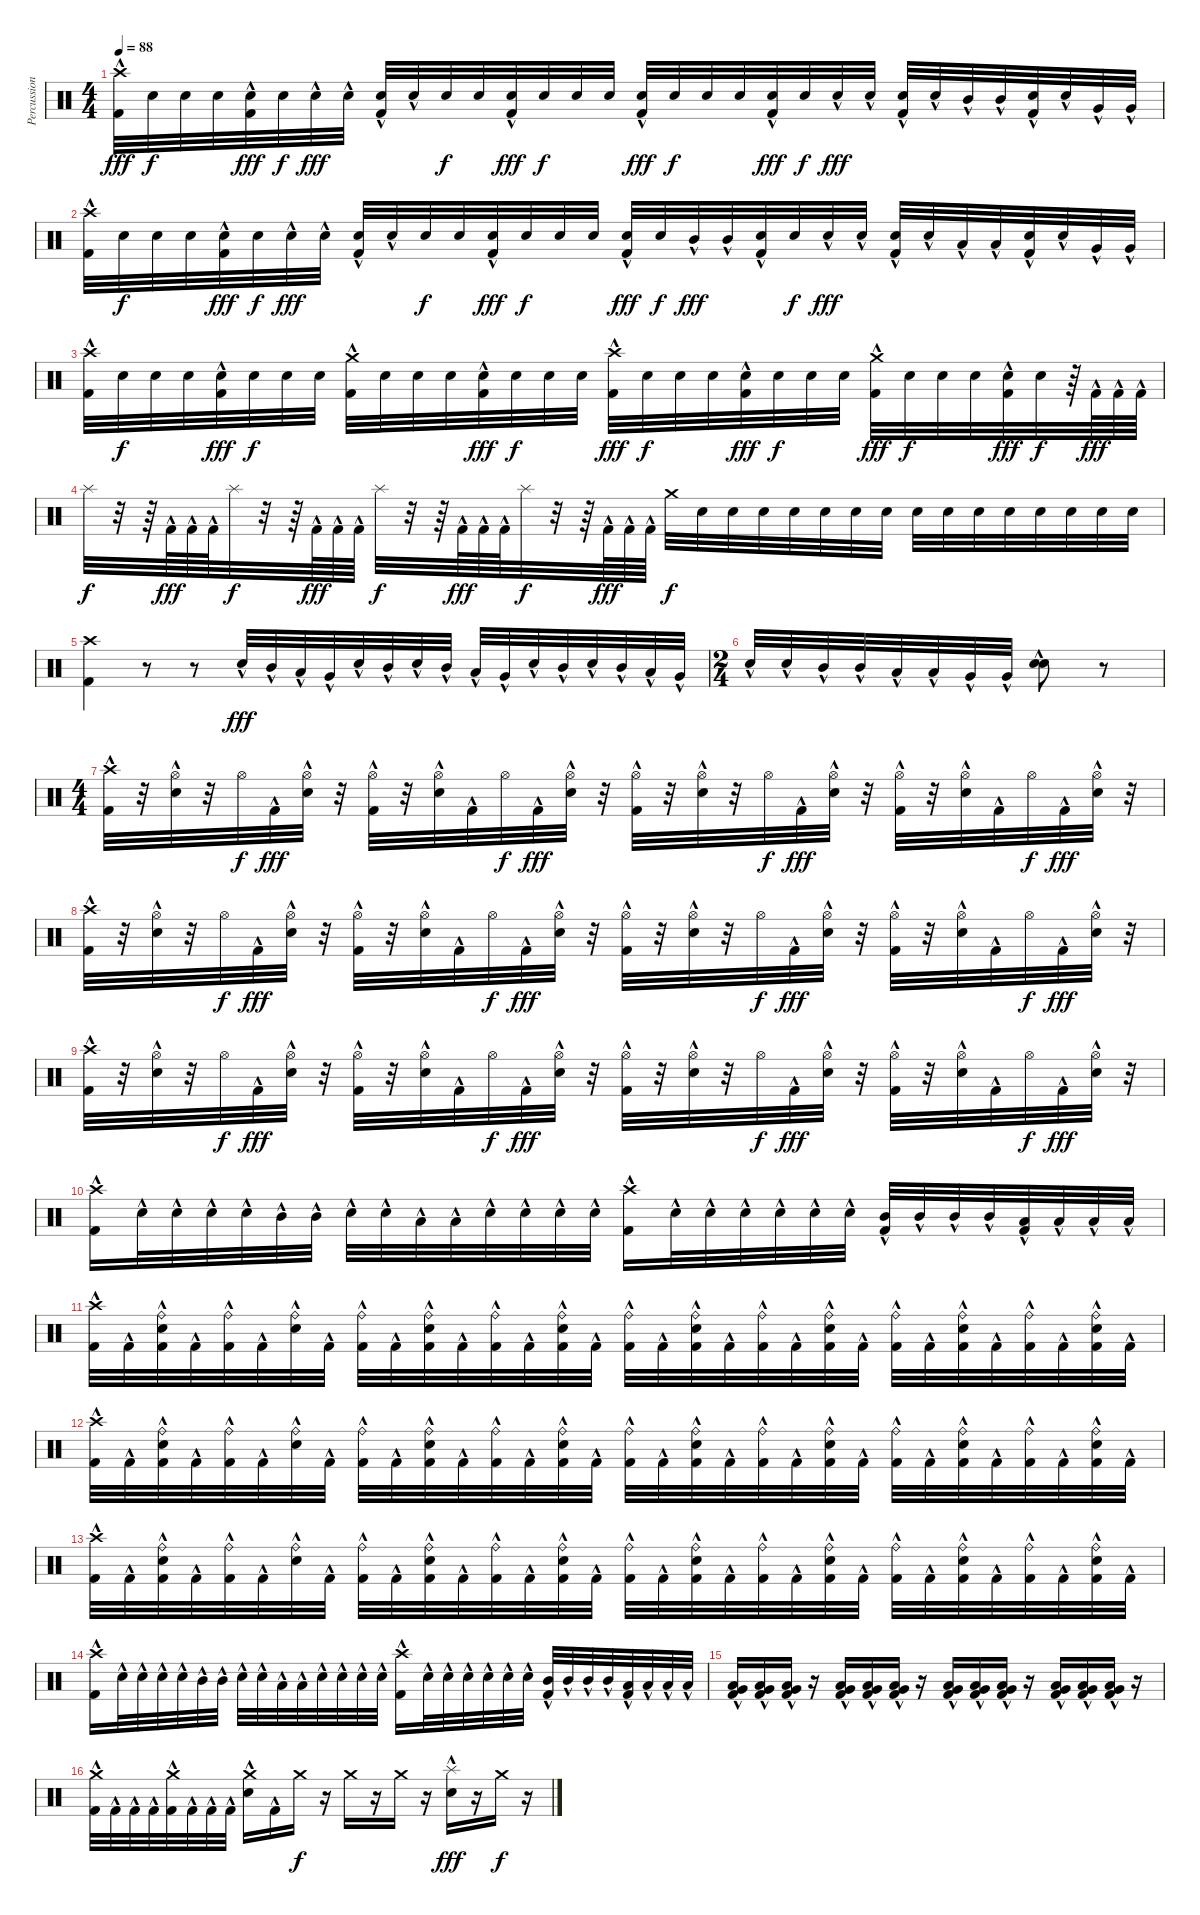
\track ("Percussion" "Percussion") {instrument percussion}
\staff {score}
\articulation defaults
\ts (4 4)
\tempo 88
\clef neutral
\ks c
("Kick (hit) 2"{hac} "Crash high (hit)").32{dy fff} "Electric Snare (hit)".32{dy f} "Electric Snare (hit)".32 "Electric Snare (hit)".32 ("Kick (hit) 2"{hac} "Electric Snare (hit)").32{dy fff} "Electric Snare (hit)".32{dy f} "Electric Snare (hit)"{hac}.32{dy fff} "Electric Snare (hit)"{hac}.32 ("Kick (hit) 2"{hac} "Electric Snare (hit)"{hac}).32 "Electric Snare (hit)"{hac}.32 "Electric Snare (hit)".32{dy f} "Electric Snare (hit)".32 ("Kick (hit) 2"{hac} "Electric Snare (hit)").32{dy fff} "Electric Snare (hit)".32{dy f} "Electric Snare (hit)".32 "Electric Snare (hit)".32 ("Kick (hit) 2"{hac} "Electric Snare (hit)").32{dy fff} "Electric Snare (hit)".32{dy f} "Electric Snare (hit)".32 "Electric Snare (hit)".32 ("Kick (hit) 2"{hac} "Electric Snare (hit)").32{dy fff} "Electric Snare (hit)".32{dy f} "Electric Snare (hit)"{hac}.32{dy fff} "Electric Snare (hit)"{hac}.32 ("Kick (hit) 2"{hac} "Electric Snare (hit)"{hac}).32 "Electric Snare (hit)"{hac}.32 "Mid Tom (hit)"{hac}.32 "Mid Tom (hit)"{hac}.32 ("Kick (hit) 2"{hac} "Electric Snare (hit)"{hac}).32 "Electric Snare (hit)"{hac}.32 "Very Low Tom (hit)"{hac}.32 "Very Low Tom (hit)"{hac}.32 |
("Kick (hit) 2"{hac} "Crash high (hit)").32 "Electric Snare (hit)".32{dy f} "Electric Snare (hit)".32 "Electric Snare (hit)".32 ("Kick (hit) 2"{hac} "Electric Snare (hit)").32{dy fff} "Electric Snare (hit)".32{dy f} "Electric Snare (hit)"{hac}.32{dy fff} "Electric Snare (hit)"{hac}.32 ("Kick (hit) 2"{hac} "Electric Snare (hit)"{hac}).32 "Electric Snare (hit)"{hac}.32 "Electric Snare (hit)".32{dy f} "Electric Snare (hit)".32 ("Kick (hit) 2"{hac} "Electric Snare (hit)").32{dy fff} "Electric Snare (hit)".32{dy f} "Electric Snare (hit)".32 "Electric Snare (hit)".32 ("Kick (hit) 2"{hac} "Electric Snare (hit)").32{dy fff} "Electric Snare (hit)".32{dy f} "Mid Tom (hit)"{hac}.32{dy fff} "Mid Tom (hit)"{hac}.32 ("Kick (hit) 2"{hac} "Electric Snare (hit)").32 "Electric Snare (hit)".32{dy f} "Electric Snare (hit)"{hac}.32{dy fff} "Electric Snare (hit)"{hac}.32 ("Kick (hit) 2"{hac} "Electric Snare (hit)"{hac}).32 "Electric Snare (hit)"{hac}.32 "Low Tom (hit)"{hac}.32 "Low Tom (hit)"{hac}.32 ("Kick (hit) 2"{hac} "Electric Snare (hit)"{hac}).32 "Electric Snare (hit)"{hac}.32 "Very Low Tom (hit)"{hac}.32 "Very Low Tom (hit)"{hac}.32 |
("Kick (hit) 2"{hac} "Crash high (hit)").32 "Electric Snare (hit)".32{dy f} "Electric Snare (hit)".32 "Electric Snare (hit)".32 ("Kick (hit) 2"{hac} "Electric Snare (hit)").32{dy fff} "Electric Snare (hit)".32{dy f} "Electric Snare (hit)".32 "Electric Snare (hit)".32 ("Kick (hit) 2"{hac} "Crash medium (hit)").32 "Electric Snare (hit)".32 "Electric Snare (hit)".32 "Electric Snare (hit)".32 ("Kick (hit) 2"{hac} "Electric Snare (hit)").32{dy fff} "Electric Snare (hit)".32{dy f} "Electric Snare (hit)".32 "Electric Snare (hit)".32 ("Kick (hit) 2"{hac} "Crash high (hit)").32{dy fff} "Electric Snare (hit)".32{dy f} "Electric Snare (hit)".32 "Electric Snare (hit)".32 ("Kick (hit) 2"{hac} "Electric Snare (hit)").32{dy fff} "Electric Snare (hit)".32{dy f} "Electric Snare (hit)".32 "Electric Snare (hit)".32 ("Kick (hit) 2"{hac} "Crash medium (hit)").32{dy fff} "Electric Snare (hit)".32{dy f} "Electric Snare (hit)".32 "Electric Snare (hit)".32 ("Kick (hit) 2"{hac} "Electric Snare (hit)").32{dy fff} "Electric Snare (hit)".32{dy f} r.64 "Kick (hit) 2"{hac}.64{dy fff} "Kick (hit) 2"{hac}.64 "Kick (hit) 2"{hac}.64 |
"Splash (hit)".32{dy f} r.32 r.64 "Kick (hit) 2"{hac}.64{dy fff} "Kick (hit) 2"{hac}.64 "Kick (hit) 2"{hac}.64 "Splash (hit)".32{dy f} r.32 r.64 "Kick (hit) 2"{hac}.64{dy fff} "Kick (hit) 2"{hac}.64 "Kick (hit) 2"{hac}.64 "Splash (hit)".32{dy f} r.32 r.64 "Kick (hit) 2"{hac}.64{dy fff} "Kick (hit) 2"{hac}.64 "Kick (hit) 2"{hac}.64 "Splash (hit)".32{dy f} r.32 r.64 "Kick (hit) 2"{hac}.64{dy fff} "Kick (hit) 2"{hac}.64 "Kick (hit) 2"{hac}.64 "Crash medium (hit)".32{dy f} "Electric Snare (hit)".32 "Electric Snare (hit)".32 "Electric Snare (hit)".32 "Electric Snare (hit)".32 "Electric Snare (hit)".32 "Electric Snare (hit)".32 "Electric Snare (hit)".32 "Electric Snare (hit)".32 "Electric Snare (hit)".32 "Electric Snare (hit)".32 "Electric Snare (hit)".32 "Electric Snare (hit)".32 "Electric Snare (hit)".32 "Electric Snare (hit)".32 "Electric Snare (hit)".32 |
("Kick (hit) 2" "Crash high (hit)").4 r.8 r.8 "Electric Snare (hit)"{hac}.32{dy fff} "Mid Tom (hit)"{hac}.32 "Low Tom (hit)"{hac}.32 "Very Low Tom (hit)"{hac}.32 "Electric Snare (hit)"{hac}.32 "Mid Tom (hit)"{hac}.32 "Electric Snare (hit)"{hac}.32 "Mid Tom (hit)"{hac}.32 "Low Tom (hit)"{hac}.32 "Very Low Tom (hit)"{hac}.32 "Electric Snare (hit)"{hac}.32 "Mid Tom (hit)"{hac}.32 "Electric Snare (hit)"{hac}.32 "Mid Tom (hit)"{hac}.32 "Low Tom (hit)"{hac}.32 "Very Low Tom (hit)"{hac}.32 |
\ts (2 4)
"Electric Snare (hit)"{hac}.32 "Electric Snare (hit)"{hac}.32 "Mid Tom (hit)"{hac}.32 "Mid Tom (hit)"{hac}.32 "Low Tom (hit)"{hac}.32 "Low Tom (hit)"{hac}.32 "Very Low Tom (hit)"{hac}.32 "Very Low Tom (hit)"{hac}.32 ("Electric Snare (hit)"{hac} "Electric Snare (hit)"{hac}).8{bd 240} r.8 |
\ts (4 4)
("Kick (hit) 2"{hac} "Crash high (hit)").32 r.32 ("Electric Snare (hit)"{hac} "Hi-Hat (open)").32 r.32 "Hi-Hat (open)".32{dy f} "Kick (hit) 2"{hac}.32{dy fff} ("Electric Snare (hit)"{hac} "Hi-Hat (open)").32 r.32 ("Kick (hit) 2"{hac} "Hi-Hat (open)").32 r.32 ("Electric Snare (hit)"{hac} "Hi-Hat (open)").32 "Kick (hit) 2"{hac}.32 "Hi-Hat (open)".32{dy f} "Kick (hit) 2"{hac}.32{dy fff} ("Electric Snare (hit)"{hac} "Hi-Hat (open)").32 r.32 ("Kick (hit) 2"{hac} "Hi-Hat (open)").32 r.32 ("Electric Snare (hit)"{hac} "Hi-Hat (open)").32 r.32 "Hi-Hat (open)".32{dy f} "Kick (hit) 2"{hac}.32{dy fff} ("Electric Snare (hit)"{hac} "Hi-Hat (open)").32 r.32 ("Kick (hit) 2"{hac} "Hi-Hat (open)").32 r.32 ("Electric Snare (hit)"{hac} "Hi-Hat (open)").32 "Kick (hit) 2"{hac}.32 "Hi-Hat (open)".32{dy f} "Kick (hit) 2"{hac}.32{dy fff} ("Electric Snare (hit)"{hac} "Hi-Hat (open)").32 r.32 |
("Kick (hit) 2"{hac} "Crash high (hit)").32 r.32 ("Electric Snare (hit)"{hac} "Hi-Hat (open)").32 r.32 "Hi-Hat (open)".32{dy f} "Kick (hit) 2"{hac}.32{dy fff} ("Electric Snare (hit)"{hac} "Hi-Hat (open)").32 r.32 ("Kick (hit) 2"{hac} "Hi-Hat (open)").32 r.32 ("Electric Snare (hit)"{hac} "Hi-Hat (open)").32 "Kick (hit) 2"{hac}.32 "Hi-Hat (open)".32{dy f} "Kick (hit) 2"{hac}.32{dy fff} ("Electric Snare (hit)"{hac} "Hi-Hat (open)").32 r.32 ("Kick (hit) 2"{hac} "Hi-Hat (open)").32 r.32 ("Electric Snare (hit)"{hac} "Hi-Hat (open)").32 r.32 "Hi-Hat (open)".32{dy f} "Kick (hit) 2"{hac}.32{dy fff} ("Electric Snare (hit)"{hac} "Hi-Hat (open)").32 r.32 ("Kick (hit) 2"{hac} "Hi-Hat (open)").32 r.32 ("Electric Snare (hit)"{hac} "Hi-Hat (open)").32 "Kick (hit) 2"{hac}.32 "Hi-Hat (open)".32{dy f} "Kick (hit) 2"{hac}.32{dy fff} ("Electric Snare (hit)"{hac} "Hi-Hat (open)").32 r.32 |
("Kick (hit) 2"{hac} "Crash high (hit)").32 r.32 ("Electric Snare (hit)"{hac} "Hi-Hat (open)").32 r.32 "Hi-Hat (open)".32{dy f} "Kick (hit) 2"{hac}.32{dy fff} ("Electric Snare (hit)"{hac} "Hi-Hat (open)").32 r.32 ("Kick (hit) 2"{hac} "Hi-Hat (open)").32 r.32 ("Electric Snare (hit)"{hac} "Hi-Hat (open)").32 "Kick (hit) 2"{hac}.32 "Hi-Hat (open)".32{dy f} "Kick (hit) 2"{hac}.32{dy fff} ("Electric Snare (hit)"{hac} "Hi-Hat (open)").32 r.32 ("Kick (hit) 2"{hac} "Hi-Hat (open)").32 r.32 ("Electric Snare (hit)"{hac} "Hi-Hat (open)").32 r.32 "Hi-Hat (open)".32{dy f} "Kick (hit) 2"{hac}.32{dy fff} ("Electric Snare (hit)"{hac} "Hi-Hat (open)").32 r.32 ("Kick (hit) 2"{hac} "Hi-Hat (open)").32 r.32 ("Electric Snare (hit)"{hac} "Hi-Hat (open)").32 "Kick (hit) 2"{hac}.32 "Hi-Hat (open)".32{dy f} "Kick (hit) 2"{hac}.32{dy fff} ("Electric Snare (hit)"{hac} "Hi-Hat (open)").32 r.32 |
("Kick (hit) 2"{hac} "Crash high (hit)").16 "Electric Snare (hit)"{hac}.32 "Electric Snare (hit)"{hac}.32 "Electric Snare (hit)"{hac}.32 "Electric Snare (hit)"{hac}.32 "Mid Tom (hit)"{hac}.32 "Mid Tom (hit)"{hac}.32 "Electric Snare (hit)"{hac}.32 "Electric Snare (hit)"{hac}.32 "Low Tom (hit)"{hac}.32 "Low Tom (hit)"{hac}.32 "Electric Snare (hit)"{hac}.32 "Electric Snare (hit)"{hac}.32 "Electric Snare (hit)"{hac}.32 "Electric Snare (hit)"{hac}.32 ("Kick (hit) 2"{hac} "Crash high (hit)").16 "Electric Snare (hit)"{hac}.32 "Electric Snare (hit)"{hac}.32 "Electric Snare (hit)"{hac}.32 "Electric Snare (hit)"{hac}.32 "Electric Snare (hit)"{hac}.32 "Electric Snare (hit)"{hac}.32 ("Kick (hit) 2"{hac} "Mid Tom (hit)"{hac}).32 "Mid Tom (hit)"{hac}.32 "Mid Tom (hit)"{hac}.32 "Mid Tom (hit)"{hac}.32 ("Kick (hit) 2"{hac} "Low Tom (hit)"{hac}).32 "Low Tom (hit)"{hac}.32 "Low Tom (hit)"{hac}.32 "Low Tom (hit)"{hac}.32 |
("Kick (hit) 2"{hac} "Crash high (hit)").32 "Kick (hit) 2"{hac}.32 ("Kick (hit) 2"{hac} "Electric Snare (hit)"{hac} "Ride (bell)").32 "Kick (hit) 2"{hac}.32 ("Kick (hit) 2"{hac} "Ride (bell)").32 "Kick (hit) 2"{hac}.32 ("Electric Snare (hit)"{hac} "Ride (bell)").32 "Kick (hit) 2"{hac}.32 ("Kick (hit) 2"{hac} "Ride (bell)").32 "Kick (hit) 2"{hac}.32 ("Kick (hit) 2"{hac} "Electric Snare (hit)"{hac} "Ride (bell)").32 "Kick (hit) 2"{hac}.32 ("Kick (hit) 2"{hac} "Ride (bell)").32 "Kick (hit) 2"{hac}.32 ("Kick (hit) 2"{hac} "Electric Snare (hit)"{hac} "Ride (bell)").32 "Kick (hit) 2"{hac}.32 ("Kick (hit) 2"{hac} "Ride (bell)").32 "Kick (hit) 2"{hac}.32 ("Kick (hit) 2"{hac} "Electric Snare (hit)"{hac} "Ride (bell)").32 "Kick (hit) 2"{hac}.32 ("Kick (hit) 2"{hac} "Ride (bell)").32 "Kick (hit) 2"{hac}.32 ("Kick (hit) 2"{hac} "Electric Snare (hit)"{hac} "Ride (bell)").32 "Kick (hit) 2"{hac}.32 ("Kick (hit) 2"{hac} "Ride (bell)").32 "Kick (hit) 2"{hac}.32 ("Kick (hit) 2"{hac} "Electric Snare (hit)"{hac} "Ride (bell)").32 "Kick (hit) 2"{hac}.32 ("Kick (hit) 2"{hac} "Ride (bell)").32 "Kick (hit) 2"{hac}.32 ("Kick (hit) 2"{hac} "Electric Snare (hit)"{hac} "Ride (bell)").32 "Kick (hit) 2"{hac}.32 |
("Kick (hit) 2"{hac} "Crash high (hit)").32 "Kick (hit) 2"{hac}.32 ("Kick (hit) 2"{hac} "Electric Snare (hit)"{hac} "Ride (bell)").32 "Kick (hit) 2"{hac}.32 ("Kick (hit) 2"{hac} "Ride (bell)").32 "Kick (hit) 2"{hac}.32 ("Electric Snare (hit)"{hac} "Ride (bell)").32 "Kick (hit) 2"{hac}.32 ("Kick (hit) 2"{hac} "Ride (bell)").32 "Kick (hit) 2"{hac}.32 ("Kick (hit) 2"{hac} "Electric Snare (hit)"{hac} "Ride (bell)").32 "Kick (hit) 2"{hac}.32 ("Kick (hit) 2"{hac} "Ride (bell)").32 "Kick (hit) 2"{hac}.32 ("Kick (hit) 2"{hac} "Electric Snare (hit)"{hac} "Ride (bell)").32 "Kick (hit) 2"{hac}.32 ("Kick (hit) 2"{hac} "Ride (bell)").32 "Kick (hit) 2"{hac}.32 ("Kick (hit) 2"{hac} "Electric Snare (hit)"{hac} "Ride (bell)").32 "Kick (hit) 2"{hac}.32 ("Kick (hit) 2"{hac} "Ride (bell)").32 "Kick (hit) 2"{hac}.32 ("Kick (hit) 2"{hac} "Electric Snare (hit)"{hac} "Ride (bell)").32 "Kick (hit) 2"{hac}.32 ("Kick (hit) 2"{hac} "Ride (bell)").32 "Kick (hit) 2"{hac}.32 ("Kick (hit) 2"{hac} "Electric Snare (hit)"{hac} "Ride (bell)").32 "Kick (hit) 2"{hac}.32 ("Kick (hit) 2"{hac} "Ride (bell)").32 "Kick (hit) 2"{hac}.32 ("Kick (hit) 2"{hac} "Electric Snare (hit)"{hac} "Ride (bell)").32 "Kick (hit) 2"{hac}.32 |
("Kick (hit) 2"{hac} "Crash high (hit)").32 "Kick (hit) 2"{hac}.32 ("Kick (hit) 2"{hac} "Electric Snare (hit)"{hac} "Ride (bell)").32 "Kick (hit) 2"{hac}.32 ("Kick (hit) 2"{hac} "Ride (bell)").32 "Kick (hit) 2"{hac}.32 ("Electric Snare (hit)"{hac} "Ride (bell)").32 "Kick (hit) 2"{hac}.32 ("Kick (hit) 2"{hac} "Ride (bell)").32 "Kick (hit) 2"{hac}.32 ("Kick (hit) 2"{hac} "Electric Snare (hit)"{hac} "Ride (bell)").32 "Kick (hit) 2"{hac}.32 ("Kick (hit) 2"{hac} "Ride (bell)").32 "Kick (hit) 2"{hac}.32 ("Kick (hit) 2"{hac} "Electric Snare (hit)"{hac} "Ride (bell)").32 "Kick (hit) 2"{hac}.32 ("Kick (hit) 2"{hac} "Ride (bell)").32 "Kick (hit) 2"{hac}.32 ("Kick (hit) 2"{hac} "Electric Snare (hit)"{hac} "Ride (bell)").32 "Kick (hit) 2"{hac}.32 ("Kick (hit) 2"{hac} "Ride (bell)").32 "Kick (hit) 2"{hac}.32 ("Kick (hit) 2"{hac} "Electric Snare (hit)"{hac} "Ride (bell)").32 "Kick (hit) 2"{hac}.32 ("Kick (hit) 2"{hac} "Ride (bell)").32 "Kick (hit) 2"{hac}.32 ("Kick (hit) 2"{hac} "Electric Snare (hit)"{hac} "Ride (bell)").32 "Kick (hit) 2"{hac}.32 ("Kick (hit) 2"{hac} "Ride (bell)").32 "Kick (hit) 2"{hac}.32 ("Kick (hit) 2"{hac} "Electric Snare (hit)"{hac} "Ride (bell)").32 "Kick (hit) 2"{hac}.32 |
("Kick (hit) 2"{hac} "Crash high (hit)").16 "Electric Snare (hit)"{hac}.32 "Electric Snare (hit)"{hac}.32 "Electric Snare (hit)"{hac}.32 "Electric Snare (hit)"{hac}.32 "Mid Tom (hit)"{hac}.32 "Mid Tom (hit)"{hac}.32 "Electric Snare (hit)"{hac}.32 "Electric Snare (hit)"{hac}.32 "Low Tom (hit)"{hac}.32 "Low Tom (hit)"{hac}.32 "Electric Snare (hit)"{hac}.32 "Electric Snare (hit)"{hac}.32 "Electric Snare (hit)"{hac}.32 "Electric Snare (hit)"{hac}.32 ("Kick (hit) 2"{hac} "Crash high (hit)").16 "Electric Snare (hit)"{hac}.32 "Electric Snare (hit)"{hac}.32 "Electric Snare (hit)"{hac}.32 "Electric Snare (hit)"{hac}.32 "Electric Snare (hit)"{hac}.32 "Electric Snare (hit)"{hac}.32 ("Kick (hit) 2"{hac} "Mid Tom (hit)"{hac}).32 "Mid Tom (hit)"{hac}.32 "Mid Tom (hit)"{hac}.32 "Mid Tom (hit)"{hac}.32 ("Kick (hit) 2"{hac} "Low Tom (hit)"{hac}).32 "Low Tom (hit)"{hac}.32 "Low Tom (hit)"{hac}.32 "Low Tom (hit)"{hac}.32 |
("Kick (hit) 2"{hac} "Very Low Tom (hit)"{hac} "Low Tom (hit)"{hac}).16 ("Kick (hit) 2"{hac} "Very Low Tom (hit)"{hac} "Low Tom (hit)"{hac}).16 ("Kick (hit) 2"{hac} "Very Low Tom (hit)"{hac} "Low Tom (hit)"{hac}).16 r.16 ("Kick (hit) 2"{hac} "Very Low Tom (hit)"{hac} "Low Tom (hit)"{hac}).16 ("Kick (hit) 2"{hac} "Very Low Tom (hit)"{hac} "Low Tom (hit)"{hac}).16 ("Kick (hit) 2"{hac} "Very Low Tom (hit)"{hac} "Low Tom (hit)"{hac}).16 r.16 ("Kick (hit) 2"{hac} "Very Low Tom (hit)"{hac} "Low Tom (hit)"{hac}).16 ("Kick (hit) 2"{hac} "Very Low Tom (hit)"{hac} "Low Tom (hit)"{hac}).16 ("Kick (hit) 2"{hac} "Very Low Tom (hit)"{hac} "Low Tom (hit)"{hac}).16 r.16 ("Kick (hit) 2"{hac} "Very Low Tom (hit)"{hac} "Low Tom (hit)"{hac}).16 ("Kick (hit) 2"{hac} "Very Low Tom (hit)"{hac} "Low Tom (hit)"{hac}).16 ("Kick (hit) 2"{hac} "Very Low Tom (hit)"{hac} "Low Tom (hit)"{hac}).16 r.16 |
("Kick (hit) 2"{hac} "Crash medium (hit)").32 "Kick (hit) 2"{hac}.32 "Kick (hit) 2"{hac}.32 "Kick (hit) 2"{hac}.32 ("Kick (hit) 2"{hac} "Crash medium (hit)").32 "Kick (hit) 2"{hac}.32 "Kick (hit) 2"{hac}.32 "Kick (hit) 2"{hac}.32 ("Electric Snare (hit)"{hac} "Crash medium (hit)").16 "Kick (hit) 2"{hac}.16 "Crash medium (hit)".16{dy f} r.16 "Crash medium (hit)".16 r.16 "Crash medium (hit)".16 r.16 ("Electric Snare (hit)"{hac} "Splash (hit)").16{dy fff} r.16 "Crash medium (hit)".16{dy f} r.16
